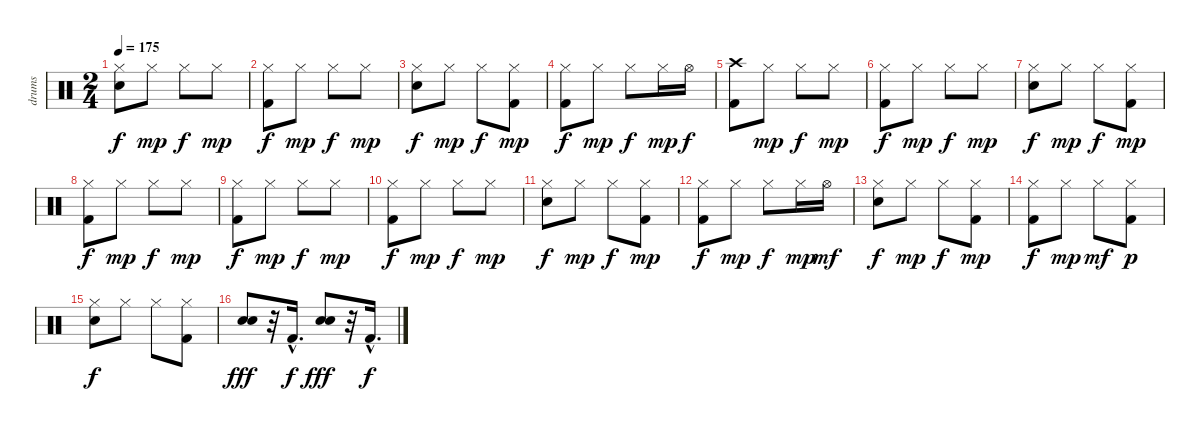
\track ("drums" "drums") {instrument percussion}
\staff {score}
\articulation defaults
\ts (2 4)
\tempo 175
\clef neutral
\ks c
("Hi-Hat (closed)" "Snare (hit) 2").8{dy f} "Hi-Hat (closed)".8{dy mp} "Hi-Hat (closed)".8{dy f} "Hi-Hat (closed)".8{dy mp} |
("Hi-Hat (closed)" "Kick (hit) 2").8{dy f} "Hi-Hat (closed)".8{dy mp} "Hi-Hat (closed)".8{dy f} "Hi-Hat (closed)".8{dy mp} |
("Hi-Hat (closed)" "Snare (hit) 2").8{dy f} "Hi-Hat (closed)".8{dy mp} "Hi-Hat (closed)".8{dy f} ("Hi-Hat (closed)" "Kick (hit) 2").8{dy mp} |
("Hi-Hat (closed)" "Kick (hit) 2").8{dy f} "Hi-Hat (closed)".8{dy mp} "Hi-Hat (closed)".8{dy f} "Hi-Hat (closed)".16{dy mp} "Hi-Hat (open)".16{dy f} |
("Crash high (hit)" "Kick (hit) 2").8 "Hi-Hat (closed)".8{dy mp} "Hi-Hat (closed)".8{dy f} "Hi-Hat (closed)".8{dy mp} |
("Hi-Hat (closed)" "Kick (hit) 2").8{dy f} "Hi-Hat (closed)".8{dy mp} "Hi-Hat (closed)".8{dy f} "Hi-Hat (closed)".8{dy mp} |
("Hi-Hat (closed)" "Snare (hit) 2").8{dy f} "Hi-Hat (closed)".8{dy mp} "Hi-Hat (closed)".8{dy f} ("Hi-Hat (closed)" "Kick (hit) 2").8{dy mp} |
("Hi-Hat (closed)" "Kick (hit) 2").8{dy f} "Hi-Hat (closed)".8{dy mp} "Hi-Hat (closed)".8{dy f} "Hi-Hat (closed)".8{dy mp} |
("Hi-Hat (closed)" "Kick (hit) 2").8{dy f} "Hi-Hat (closed)".8{dy mp} "Hi-Hat (closed)".8{dy f} "Hi-Hat (closed)".8{dy mp} |
("Hi-Hat (closed)" "Kick (hit) 2").8{dy f} "Hi-Hat (closed)".8{dy mp} "Hi-Hat (closed)".8{dy f} "Hi-Hat (closed)".8{dy mp} |
("Hi-Hat (closed)" "Snare (hit) 2").8{dy f} "Hi-Hat (closed)".8{dy mp} "Hi-Hat (closed)".8{dy f} ("Hi-Hat (closed)" "Kick (hit) 2").8{dy mp} |
("Hi-Hat (closed)" "Kick (hit) 2").8{dy f} "Hi-Hat (closed)".8{dy mp} "Hi-Hat (closed)".8{dy f} "Hi-Hat (closed)".16{dy mp} "Hi-Hat (open)".16{dy mf} |
("Hi-Hat (closed)" "Snare (hit) 2").8{dy f} "Hi-Hat (closed)".8{dy mp} "Hi-Hat (closed)".8{dy f} ("Hi-Hat (closed)" "Kick (hit) 2").8{dy mp} |
("Hi-Hat (closed)" "Kick (hit) 2").8{dy f} "Hi-Hat (closed)".8{dy mp} "Hi-Hat (closed)".8{dy mf} ("Hi-Hat (closed)" "Kick (hit) 2").8{dy p} |
("Hi-Hat (closed)" "Snare (hit) 2").8{dy f} "Hi-Hat (closed)".8 "Hi-Hat (closed)".8 ("Hi-Hat (closed)" "Kick (hit) 2").8 |
("Snare (hit) 2" "Snare (hit) 2").8{dy fff} r.32 "Kick (hit) 2"{hac}.16{d dy f} ("Snare (hit) 2" "Snare (hit) 2").8{dy fff} r.32 "Kick (hit) 2"{hac}.16{d dy f}
